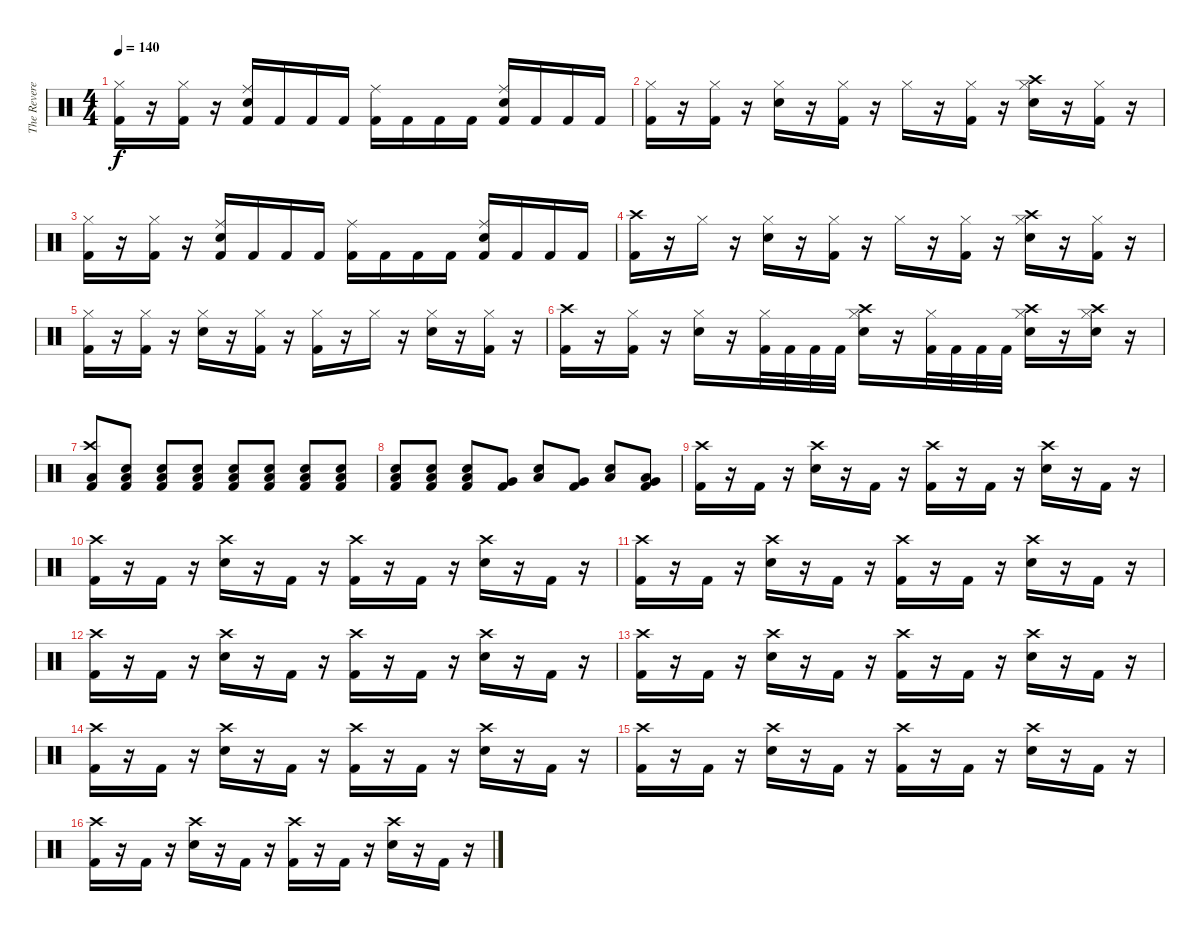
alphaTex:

\track ("The Reverend" "The Revere") {instrument percussion}
\staff {score}
\articulation defaults
\ts (4 4)
\tempo 140
\clef neutral
\ks c
("Hi-Hat (closed)" "Kick (hit) 2").16{dy f} r.16 ("Hi-Hat (closed)" "Kick (hit) 2").16 r.16 ("Ride (middle)" "Electric Snare (hit)" "Kick (hit) 2").16 "Kick (hit) 2".16 "Kick (hit) 2".16 "Kick (hit) 2".16 ("Ride (middle)" "Kick (hit) 2").16 "Kick (hit) 2".16 "Kick (hit) 2".16 "Kick (hit) 2".16 ("Ride (middle)" "Electric Snare (hit)" "Kick (hit) 2").16 "Kick (hit) 2".16 "Kick (hit) 2".16 "Kick (hit) 2".16 |
("Hi-Hat (closed)" "Kick (hit) 2").16 r.16 ("Hi-Hat (closed)" "Kick (hit) 2").16 r.16 ("Hi-Hat (closed)" "Electric Snare (hit)").16 r.16 ("Hi-Hat (closed)" "Kick (hit) 2").16 r.16 "Hi-Hat (closed)".16 r.16 ("Hi-Hat (closed)" "Kick (hit) 2").16 r.16 ("Crash high (hit)" "Hi-Hat (closed)" "Electric Snare (hit)").16 r.16 ("Hi-Hat (closed)" "Kick (hit) 2").16 r.16 |
("Hi-Hat (closed)" "Kick (hit) 2").16 r.16 ("Hi-Hat (closed)" "Kick (hit) 2").16 r.16 ("Ride (middle)" "Electric Snare (hit)" "Kick (hit) 2").16 "Kick (hit) 2".16 "Kick (hit) 2".16 "Kick (hit) 2".16 ("Ride (middle)" "Kick (hit) 2").16 "Kick (hit) 2".16 "Kick (hit) 2".16 "Kick (hit) 2".16 ("Ride (middle)" "Electric Snare (hit)" "Kick (hit) 2").16 "Kick (hit) 2".16 "Kick (hit) 2".16 "Kick (hit) 2".16 |
("Crash high (hit)" "Kick (hit) 2").16 r.16 "Hi-Hat (closed)".16 r.16 ("Hi-Hat (closed)" "Electric Snare (hit)").16 r.16 ("Hi-Hat (closed)" "Kick (hit) 2").16 r.16 "Hi-Hat (closed)".16 r.16 ("Hi-Hat (closed)" "Kick (hit) 2").16 r.16 ("Crash high (hit)" "Hi-Hat (closed)" "Electric Snare (hit)").16 r.16 ("Hi-Hat (closed)" "Kick (hit) 2").16 r.16 |
("Hi-Hat (closed)" "Kick (hit) 2").16 r.16 ("Hi-Hat (closed)" "Kick (hit) 2").16 r.16 ("Hi-Hat (closed)" "Electric Snare (hit)").16 r.16 ("Hi-Hat (closed)" "Kick (hit) 2").16 r.16 ("Hi-Hat (closed)" "Kick (hit) 2").16 r.16 "Hi-Hat (closed)".16 r.16 ("Hi-Hat (closed)" "Electric Snare (hit)").16 r.16 ("Hi-Hat (closed)" "Kick (hit) 2").16 r.16 |
("Crash high (hit)" "Kick (hit) 2").16 r.16 ("Hi-Hat (closed)" "Kick (hit) 2").16 r.16 ("Hi-Hat (closed)" "Electric Snare (hit)").16 r.16 ("Hi-Hat (closed)" "Kick (hit) 2").32 "Kick (hit) 2".32 "Kick (hit) 2".32 "Kick (hit) 2".32 ("Crash high (hit)" "Hi-Hat (closed)" "Electric Snare (hit)").16 r.16 ("Hi-Hat (closed)" "Kick (hit) 2").32 "Kick (hit) 2".32 "Kick (hit) 2".32 "Kick (hit) 2".32 ("Crash high (hit)" "Hi-Hat (closed)" "Electric Snare (hit)").16 r.16 ("Crash high (hit)" "Hi-Hat (closed)" "Electric Snare (hit)").16 r.16 |
("Crash high (hit)" "Low Tom (hit)" "Kick (hit) 2").8 ("Electric Snare (hit)" "Low Tom (hit)" "Kick (hit) 2").8 ("Electric Snare (hit)" "Low Tom (hit)" "Kick (hit) 2").8 ("Electric Snare (hit)" "Low Tom (hit)" "Kick (hit) 2").8 ("Electric Snare (hit)" "Low Tom (hit)" "Kick (hit) 2").8 ("Electric Snare (hit)" "Low Tom (hit)" "Kick (hit) 2").8 ("Electric Snare (hit)" "Low Tom (hit)" "Kick (hit) 2").8 ("Electric Snare (hit)" "Low Tom (hit)" "Kick (hit) 2").8 |
("Electric Snare (hit)" "Low Tom (hit)" "Kick (hit) 2").8 ("Electric Snare (hit)" "Low Tom (hit)" "Kick (hit) 2").8 ("Electric Snare (hit)" "Low Tom (hit)" "Kick (hit) 2").8 ("Very Low Tom (hit)" "Kick (hit) 2").8 ("Electric Snare (hit)" "Low Tom (hit)").8 ("Very Low Tom (hit)" "Kick (hit) 2").8 ("Electric Snare (hit)" "Low Tom (hit)").8 ("Kick (hit) 2" "Low Tom (hit)" "Very Low Tom (hit)").8 |
("Crash high (hit)" "Kick (hit) 2").16 r.16 "Kick (hit) 2".16 r.16 ("Crash high (hit)" "Electric Snare (hit)").16 r.16 "Kick (hit) 2".16 r.16 ("Crash high (hit)" "Kick (hit) 2").16 r.16 "Kick (hit) 2".16 r.16 ("Crash high (hit)" "Electric Snare (hit)").16 r.16 "Kick (hit) 2".16 r.16 |
("Crash high (hit)" "Kick (hit) 2").16 r.16 "Kick (hit) 2".16 r.16 ("Crash high (hit)" "Electric Snare (hit)").16 r.16 "Kick (hit) 2".16 r.16 ("Crash high (hit)" "Kick (hit) 2").16 r.16 "Kick (hit) 2".16 r.16 ("Crash high (hit)" "Electric Snare (hit)").16 r.16 "Kick (hit) 2".16 r.16 |
("Crash high (hit)" "Kick (hit) 2").16 r.16 "Kick (hit) 2".16 r.16 ("Crash high (hit)" "Electric Snare (hit)").16 r.16 "Kick (hit) 2".16 r.16 ("Crash high (hit)" "Kick (hit) 2").16 r.16 "Kick (hit) 2".16 r.16 ("Crash high (hit)" "Electric Snare (hit)").16 r.16 "Kick (hit) 2".16 r.16 |
("Crash high (hit)" "Kick (hit) 2").16 r.16 "Kick (hit) 2".16 r.16 ("Crash high (hit)" "Electric Snare (hit)").16 r.16 "Kick (hit) 2".16 r.16 ("Crash high (hit)" "Kick (hit) 2").16 r.16 "Kick (hit) 2".16 r.16 ("Crash high (hit)" "Electric Snare (hit)").16 r.16 "Kick (hit) 2".16 r.16 |
("Crash high (hit)" "Kick (hit) 2").16 r.16 "Kick (hit) 2".16 r.16 ("Crash high (hit)" "Electric Snare (hit)").16 r.16 "Kick (hit) 2".16 r.16 ("Crash high (hit)" "Kick (hit) 2").16 r.16 "Kick (hit) 2".16 r.16 ("Crash high (hit)" "Electric Snare (hit)").16 r.16 "Kick (hit) 2".16 r.16 |
("Crash high (hit)" "Kick (hit) 2").16 r.16 "Kick (hit) 2".16 r.16 ("Crash high (hit)" "Electric Snare (hit)").16 r.16 "Kick (hit) 2".16 r.16 ("Crash high (hit)" "Kick (hit) 2").16 r.16 "Kick (hit) 2".16 r.16 ("Crash high (hit)" "Electric Snare (hit)").16 r.16 "Kick (hit) 2".16 r.16 |
("Crash high (hit)" "Kick (hit) 2").16 r.16 "Kick (hit) 2".16 r.16 ("Crash high (hit)" "Electric Snare (hit)").16 r.16 "Kick (hit) 2".16 r.16 ("Crash high (hit)" "Kick (hit) 2").16 r.16 "Kick (hit) 2".16 r.16 ("Crash high (hit)" "Electric Snare (hit)").16 r.16 "Kick (hit) 2".16 r.16 |
("Crash high (hit)" "Kick (hit) 2").16 r.16 "Kick (hit) 2".16 r.16 ("Crash high (hit)" "Electric Snare (hit)").16 r.16 "Kick (hit) 2".16 r.16 ("Crash high (hit)" "Kick (hit) 2").16 r.16 "Kick (hit) 2".16 r.16 ("Crash high (hit)" "Electric Snare (hit)").16 r.16 "Kick (hit) 2".16 r.16
